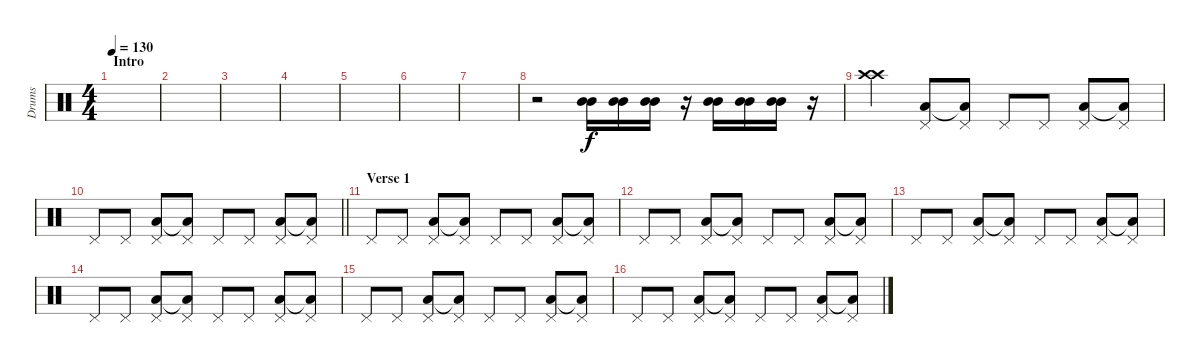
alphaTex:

\track ("Drums" "Drums") {instrument percussion}
\staff {score}
\articulation defaults
\ts (4 4)
\section ("" "Intro")
\tempo 130
\clef neutral
\ks c
|
|
|
|
|
|
|
r.2 ("Mid Tom (hit)" "Mid Tom (hit)").16 ("Mid Tom (hit)" "Mid Tom (hit)").16 ("Mid Tom (hit)" "Mid Tom (hit)").16 r.16 ("Mid Tom (hit)" "Mid Tom (hit)").16 ("Mid Tom (hit)" "Mid Tom (hit)").16 ("Mid Tom (hit)" "Mid Tom (hit)").16 r.16 |
("Crash high (hit)" "Crash high (hit)").4 ("Pedal Hi-Hat (hit)" "Low Floor Tom (hit)").8 ("Pedal Hi-Hat (hit)" "Low Floor Tom (hit)"{t}).8 "Pedal Hi-Hat (hit)".8 "Pedal Hi-Hat (hit)".8 ("Pedal Hi-Hat (hit)" "Low Floor Tom (hit)").8 ("Pedal Hi-Hat (hit)" "Low Floor Tom (hit)"{t}).8 |
\barLineRight lightlight "Pedal Hi-Hat (hit)".8 "Pedal Hi-Hat (hit)".8
("Pedal Hi-Hat (hit)" "Low Floor Tom (hit)").8 ("Pedal Hi-Hat (hit)" "Low Floor Tom (hit)"{t}).8 "Pedal Hi-Hat (hit)".8 "Pedal Hi-Hat (hit)".8 ("Pedal Hi-Hat (hit)" "Low Floor Tom (hit)").8 ("Pedal Hi-Hat (hit)" "Low Floor Tom (hit)"{t}).8 |
\section ("" "Verse 1")
"Pedal Hi-Hat (hit)".8 "Pedal Hi-Hat (hit)".8 ("Pedal Hi-Hat (hit)" "Low Floor Tom (hit)").8 ("Pedal Hi-Hat (hit)" "Low Floor Tom (hit)"{t}).8 "Pedal Hi-Hat (hit)".8 "Pedal Hi-Hat (hit)".8 ("Pedal Hi-Hat (hit)" "Low Floor Tom (hit)").8 ("Pedal Hi-Hat (hit)" "Low Floor Tom (hit)"{t}).8 |
"Pedal Hi-Hat (hit)".8 "Pedal Hi-Hat (hit)".8 ("Pedal Hi-Hat (hit)" "Low Floor Tom (hit)").8 ("Pedal Hi-Hat (hit)" "Low Floor Tom (hit)"{t}).8 "Pedal Hi-Hat (hit)".8 "Pedal Hi-Hat (hit)".8 ("Pedal Hi-Hat (hit)" "Low Floor Tom (hit)").8 ("Pedal Hi-Hat (hit)" "Low Floor Tom (hit)"{t}).8 |
"Pedal Hi-Hat (hit)".8 "Pedal Hi-Hat (hit)".8 ("Pedal Hi-Hat (hit)" "Low Floor Tom (hit)").8 ("Pedal Hi-Hat (hit)" "Low Floor Tom (hit)"{t}).8 "Pedal Hi-Hat (hit)".8 "Pedal Hi-Hat (hit)".8 ("Pedal Hi-Hat (hit)" "Low Floor Tom (hit)").8 ("Pedal Hi-Hat (hit)" "Low Floor Tom (hit)"{t}).8 |
"Pedal Hi-Hat (hit)".8 "Pedal Hi-Hat (hit)".8 ("Pedal Hi-Hat (hit)" "Low Floor Tom (hit)").8 ("Pedal Hi-Hat (hit)" "Low Floor Tom (hit)"{t}).8 "Pedal Hi-Hat (hit)".8 "Pedal Hi-Hat (hit)".8 ("Pedal Hi-Hat (hit)" "Low Floor Tom (hit)").8 ("Pedal Hi-Hat (hit)" "Low Floor Tom (hit)"{t}).8 |
"Pedal Hi-Hat (hit)".8 "Pedal Hi-Hat (hit)".8 ("Pedal Hi-Hat (hit)" "Low Floor Tom (hit)").8 ("Pedal Hi-Hat (hit)" "Low Floor Tom (hit)"{t}).8 "Pedal Hi-Hat (hit)".8 "Pedal Hi-Hat (hit)".8 ("Pedal Hi-Hat (hit)" "Low Floor Tom (hit)").8 ("Pedal Hi-Hat (hit)" "Low Floor Tom (hit)"{t}).8 |
"Pedal Hi-Hat (hit)".8 "Pedal Hi-Hat (hit)".8 ("Pedal Hi-Hat (hit)" "Low Floor Tom (hit)").8 ("Pedal Hi-Hat (hit)" "Low Floor Tom (hit)"{t}).8 "Pedal Hi-Hat (hit)".8 "Pedal Hi-Hat (hit)".8 ("Pedal Hi-Hat (hit)" "Low Floor Tom (hit)").8 ("Pedal Hi-Hat (hit)" "Low Floor Tom (hit)"{t}).8
